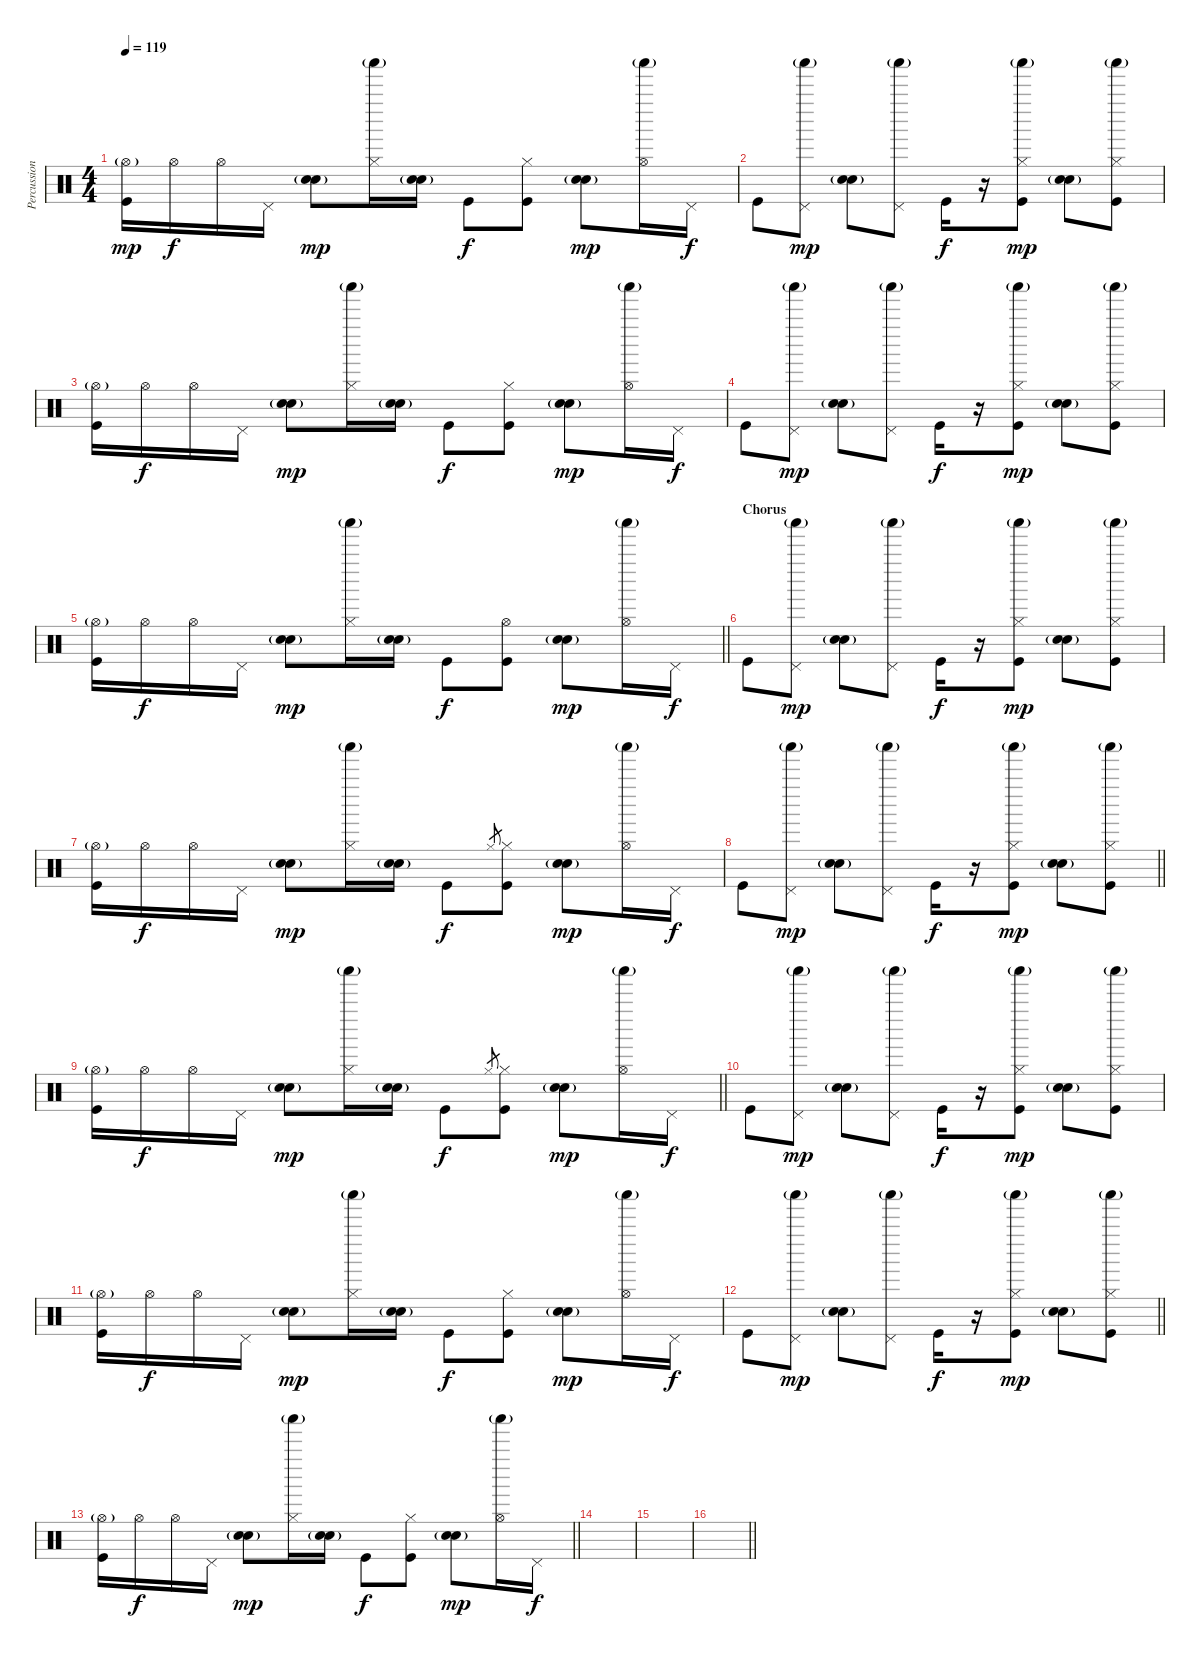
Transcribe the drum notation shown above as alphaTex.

\track ("Percussioni" "Percussion") {instrument percussion}
\staff {score}
\articulation defaults
\ts (4 4)
\tempo 119
\clef neutral
\ks c
("Hi-Hat (open)"{g} "Kick (hit)").16{dy mp} "Hi-Hat (open)".16{dy f} "Hi-Hat (open)".16 "Pedal Hi-Hat (hit)".16 ("Hand Clap (hit)"{g} "Electric Snare (hit)").8{dy mp} ("Hi-Hat (closed)" "Shaker (hit)"{g}).16 ("Electric Snare (hit)" "Hand Clap (hit)"{g}).16 "Kick (hit)".8{dy f} ("Hi-Hat (closed)" "Kick (hit)").8 ("Hand Clap (hit)"{g} "Electric Snare (hit)").8{dy mp} ("Hi-Hat (open)" "Shaker (hit)"{g}).16 "Pedal Hi-Hat (hit)".16{dy f} |
"Kick (hit)".8 ("Pedal Hi-Hat (hit)" "Shaker (hit)"{g}).8{dy mp} ("Hand Clap (hit)"{g} "Electric Snare (hit)").8 ("Pedal Hi-Hat (hit)" "Shaker (hit)"{g}).8 "Kick (hit)".16{dy f} r.16 ("Hi-Hat (closed)" "Shaker (hit)"{g} "Kick (hit)").8{dy mp} ("Hand Clap (hit)"{g} "Electric Snare (hit)").8 ("Hi-Hat (closed)" "Shaker (hit)"{g} "Kick (hit)").8 |
("Hi-Hat (open)"{g} "Kick (hit)").16 "Hi-Hat (open)".16{dy f} "Hi-Hat (open)".16 "Pedal Hi-Hat (hit)".16 ("Hand Clap (hit)"{g} "Electric Snare (hit)").8{dy mp} ("Hi-Hat (closed)" "Shaker (hit)"{g}).16 ("Electric Snare (hit)" "Hand Clap (hit)"{g}).16 "Kick (hit)".8{dy f} ("Hi-Hat (closed)" "Kick (hit)").8 ("Hand Clap (hit)"{g} "Electric Snare (hit)").8{dy mp} ("Hi-Hat (open)" "Shaker (hit)"{g}).16 "Pedal Hi-Hat (hit)".16{dy f} |
"Kick (hit)".8 ("Pedal Hi-Hat (hit)" "Shaker (hit)"{g}).8{dy mp} ("Hand Clap (hit)"{g} "Electric Snare (hit)").8 ("Pedal Hi-Hat (hit)" "Shaker (hit)"{g}).8 "Kick (hit)".16{dy f} r.16 ("Hi-Hat (closed)" "Shaker (hit)"{g} "Kick (hit)").8{dy mp} ("Hand Clap (hit)"{g} "Electric Snare (hit)").8 ("Hi-Hat (closed)" "Shaker (hit)"{g} "Kick (hit)").8 |
\barLineRight lightlight
("Hi-Hat (open)"{g} "Kick (hit)").16 "Hi-Hat (open)".16{dy f} "Hi-Hat (open)".16 "Pedal Hi-Hat (hit)".16 ("Hand Clap (hit)"{g} "Electric Snare (hit)").8{dy mp} ("Hi-Hat (closed)" "Shaker (hit)"{g}).16 ("Electric Snare (hit)" "Hand Clap (hit)"{g}).16 "Kick (hit)".8{dy f} ("Hi-Hat (open)" "Kick (hit)").8 ("Hand Clap (hit)"{g} "Electric Snare (hit)").8{dy mp} ("Hi-Hat (open)" "Shaker (hit)"{g}).16 "Pedal Hi-Hat (hit)".16{dy f} |
\section ("" "Chorus")
"Kick (hit)".8 ("Pedal Hi-Hat (hit)" "Shaker (hit)"{g}).8{dy mp} ("Hand Clap (hit)"{g} "Electric Snare (hit)").8 ("Pedal Hi-Hat (hit)" "Shaker (hit)"{g}).8 "Kick (hit)".16{dy f} r.16 ("Hi-Hat (closed)" "Shaker (hit)"{g} "Kick (hit)").8{dy mp} ("Hand Clap (hit)"{g} "Electric Snare (hit)").8 ("Hi-Hat (closed)" "Shaker (hit)"{g} "Kick (hit)").8 |
("Hi-Hat (open)"{g} "Kick (hit)").16 "Hi-Hat (open)".16{dy f} "Hi-Hat (open)".16 "Pedal Hi-Hat (hit)".16 ("Hand Clap (hit)"{g} "Electric Snare (hit)").8{dy mp} ("Hi-Hat (closed)" "Shaker (hit)"{g}).16 ("Electric Snare (hit)" "Hand Clap (hit)"{g}).16 "Kick (hit)".8{dy f} "Hi-Hat (closed)".8{gr} ("Hi-Hat (closed)" "Kick (hit)").8 ("Hand Clap (hit)"{g} "Electric Snare (hit)").8{dy mp} ("Hi-Hat (open)" "Shaker (hit)"{g}).16 "Pedal Hi-Hat (hit)".16{dy f} |
\barLineRight lightlight "Kick (hit)".8
("Pedal Hi-Hat (hit)" "Shaker (hit)"{g}).8{dy mp} ("Hand Clap (hit)"{g} "Electric Snare (hit)").8 ("Pedal Hi-Hat (hit)" "Shaker (hit)"{g}).8 "Kick (hit)".16{dy f} r.16 ("Hi-Hat (closed)" "Shaker (hit)"{g} "Kick (hit)").8{dy mp} ("Hand Clap (hit)"{g} "Electric Snare (hit)").8 ("Hi-Hat (closed)" "Shaker (hit)"{g} "Kick (hit)").8 |
\barLineRight lightlight
("Hi-Hat (open)"{g} "Kick (hit)").16 "Hi-Hat (open)".16{dy f} "Hi-Hat (open)".16 "Pedal Hi-Hat (hit)".16 ("Hand Clap (hit)"{g} "Electric Snare (hit)").8{dy mp} ("Hi-Hat (closed)" "Shaker (hit)"{g}).16 ("Electric Snare (hit)" "Hand Clap (hit)"{g}).16 "Kick (hit)".8{dy f} "Hi-Hat (closed)".8{gr} ("Hi-Hat (closed)" "Kick (hit)").8 ("Hand Clap (hit)"{g} "Electric Snare (hit)").8{dy mp} ("Hi-Hat (open)" "Shaker (hit)"{g}).16 "Pedal Hi-Hat (hit)".16{dy f} |
"Kick (hit)".8 ("Pedal Hi-Hat (hit)" "Shaker (hit)"{g}).8{dy mp} ("Hand Clap (hit)"{g} "Electric Snare (hit)").8 ("Pedal Hi-Hat (hit)" "Shaker (hit)"{g}).8 "Kick (hit)".16{dy f} r.16 ("Hi-Hat (closed)" "Shaker (hit)"{g} "Kick (hit)").8{dy mp} ("Hand Clap (hit)"{g} "Electric Snare (hit)").8 ("Hi-Hat (closed)" "Shaker (hit)"{g} "Kick (hit)").8 |
("Hi-Hat (open)"{g} "Kick (hit)").16 "Hi-Hat (open)".16{dy f} "Hi-Hat (open)".16 "Pedal Hi-Hat (hit)".16 ("Hand Clap (hit)"{g} "Electric Snare (hit)").8{dy mp} ("Hi-Hat (closed)" "Shaker (hit)"{g}).16 ("Electric Snare (hit)" "Hand Clap (hit)"{g}).16 "Kick (hit)".8{dy f} ("Hi-Hat (closed)" "Kick (hit)").8 ("Hand Clap (hit)"{g} "Electric Snare (hit)").8{dy mp} ("Hi-Hat (open)" "Shaker (hit)"{g}).16 "Pedal Hi-Hat (hit)".16{dy f} |
\barLineRight lightlight "Kick (hit)".8
("Pedal Hi-Hat (hit)" "Shaker (hit)"{g}).8{dy mp} ("Hand Clap (hit)"{g} "Electric Snare (hit)").8 ("Pedal Hi-Hat (hit)" "Shaker (hit)"{g}).8 "Kick (hit)".16{dy f} r.16 ("Hi-Hat (closed)" "Shaker (hit)"{g} "Kick (hit)").8{dy mp} ("Hand Clap (hit)"{g} "Electric Snare (hit)").8 ("Hi-Hat (closed)" "Shaker (hit)"{g} "Kick (hit)").8 |
\barLineRight lightlight
("Hi-Hat (open)"{g} "Kick (hit)").16 "Hi-Hat (open)".16{dy f} "Hi-Hat (open)".16 "Pedal Hi-Hat (hit)".16 ("Hand Clap (hit)"{g} "Electric Snare (hit)").8{dy mp} ("Hi-Hat (closed)" "Shaker (hit)"{g}).16 ("Electric Snare (hit)" "Hand Clap (hit)"{g}).16 "Kick (hit)".8{dy f} ("Hi-Hat (closed)" "Kick (hit)").8 ("Hand Clap (hit)"{g} "Electric Snare (hit)").8{dy mp} ("Hi-Hat (open)" "Shaker (hit)"{g}).16 "Pedal Hi-Hat (hit)".16{dy f} |
|
|
\barLineRight lightlight
